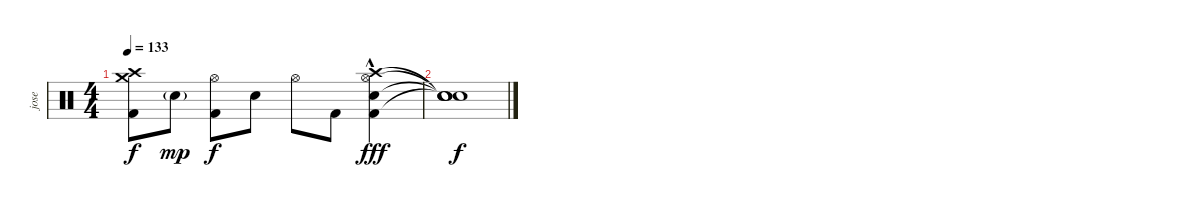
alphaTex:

\track ("jose" "jose") {instrument percussion}
\staff {score}
\articulation defaults
\ts (4 4)
\tempo 133
\clef neutral
\ks c
("Crash high (hit)" "Crash medium (hit)" "Kick (hit) 2").8{dy f} "Snare (hit) 2"{g}.8{dy mp} ("Hi-Hat (open)" "Kick (hit) 2").8{dy f} "Snare (hit) 2".8 "Hi-Hat (open)".8 "Kick (hit) 2".8 ("Crash high (hit)" "Hi-Hat (open)"{hac} "Snare (hit) 2" "Kick (hit) 2").4{dy fff} |
("Snare (hit)"{t} "Snare (hit)"{t} "Snare (hit)"{t} "Snare (hit)"{t}).1{dy f}
